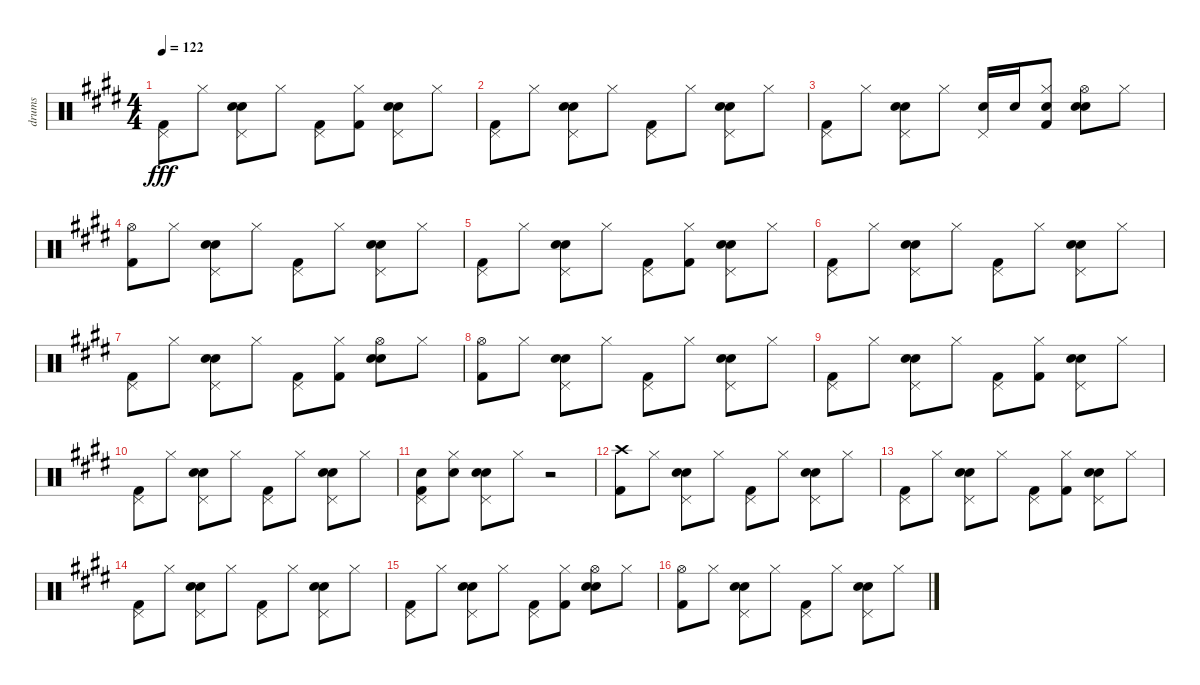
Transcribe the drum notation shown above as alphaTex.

\track ("drums" "drums") {instrument percussion}
\staff {score}
\articulation defaults
\ts (4 4)
\tempo 122
\clef neutral
\ks e
("Pedal Hi-Hat (hit)" "Kick (hit) 2").8{dy fff} "Hi-Hat (closed)".8 ("Hand Clap (hit)" "Pedal Hi-Hat (hit)" "Snare (hit) 2").8 "Hi-Hat (closed)".8 ("Pedal Hi-Hat (hit)" "Kick (hit) 2").8 ("Hi-Hat (closed)" "Kick (hit) 2").8 ("Hand Clap (hit)" "Pedal Hi-Hat (hit)" "Snare (hit) 2").8 "Hi-Hat (closed)".8 |
("Pedal Hi-Hat (hit)" "Kick (hit) 2").8 "Hi-Hat (closed)".8 ("Hand Clap (hit)" "Pedal Hi-Hat (hit)" "Snare (hit) 2").8 "Hi-Hat (closed)".8 ("Pedal Hi-Hat (hit)" "Kick (hit) 2").8 "Hi-Hat (closed)".8 ("Hand Clap (hit)" "Pedal Hi-Hat (hit)" "Snare (hit) 2").8 "Hi-Hat (closed)".8 |
("Kick (hit) 2" "Pedal Hi-Hat (hit)").8 "Hi-Hat (closed)".8 ("Hand Clap (hit)" "Pedal Hi-Hat (hit)" "Snare (hit) 2").8 "Hi-Hat (closed)".8 ("Snare (hit) 2" "Pedal Hi-Hat (hit)").16 "Snare (hit) 2".16 ("Kick (hit) 2" "Snare (hit) 2" "Hi-Hat (closed)").8 ("Hand Clap (hit)" "Hi-Hat (open)" "Snare (hit) 2").8 "Hi-Hat (closed)".8 |
("Hi-Hat (open)" "Kick (hit) 2").8 "Hi-Hat (closed)".8 ("Hand Clap (hit)" "Pedal Hi-Hat (hit)" "Snare (hit) 2").8 "Hi-Hat (closed)".8 ("Pedal Hi-Hat (hit)" "Kick (hit) 2").8 "Hi-Hat (closed)".8 ("Hand Clap (hit)" "Pedal Hi-Hat (hit)" "Snare (hit) 2").8 "Hi-Hat (closed)".8 |
("Pedal Hi-Hat (hit)" "Kick (hit) 2").8 "Hi-Hat (closed)".8 ("Hand Clap (hit)" "Pedal Hi-Hat (hit)" "Snare (hit) 2").8 "Hi-Hat (closed)".8 ("Pedal Hi-Hat (hit)" "Kick (hit) 2").8 ("Hi-Hat (closed)" "Kick (hit) 2").8 ("Hand Clap (hit)" "Pedal Hi-Hat (hit)" "Snare (hit) 2").8 "Hi-Hat (closed)".8 |
("Pedal Hi-Hat (hit)" "Kick (hit) 2").8 "Hi-Hat (closed)".8 ("Hand Clap (hit)" "Pedal Hi-Hat (hit)" "Snare (hit) 2").8 "Hi-Hat (closed)".8 ("Pedal Hi-Hat (hit)" "Kick (hit) 2").8 "Hi-Hat (closed)".8 ("Hand Clap (hit)" "Pedal Hi-Hat (hit)" "Snare (hit) 2").8 "Hi-Hat (closed)".8 |
("Pedal Hi-Hat (hit)" "Kick (hit) 2").8 "Hi-Hat (closed)".8 ("Hand Clap (hit)" "Pedal Hi-Hat (hit)" "Snare (hit) 2").8 "Hi-Hat (closed)".8 ("Kick (hit) 2" "Pedal Hi-Hat (hit)").8 ("Kick (hit) 2" "Hi-Hat (closed)").8 ("Hand Clap (hit)" "Hi-Hat (open)" "Snare (hit) 2").8 "Hi-Hat (closed)".8 |
("Hi-Hat (open)" "Kick (hit) 2").8 "Hi-Hat (closed)".8 ("Hand Clap (hit)" "Pedal Hi-Hat (hit)" "Snare (hit) 2").8 "Hi-Hat (closed)".8 ("Pedal Hi-Hat (hit)" "Kick (hit) 2").8 "Hi-Hat (closed)".8 ("Hand Clap (hit)" "Pedal Hi-Hat (hit)" "Snare (hit) 2").8 "Hi-Hat (closed)".8 |
("Pedal Hi-Hat (hit)" "Kick (hit) 2").8 "Hi-Hat (closed)".8 ("Hand Clap (hit)" "Pedal Hi-Hat (hit)" "Snare (hit) 2").8 "Hi-Hat (closed)".8 ("Pedal Hi-Hat (hit)" "Kick (hit) 2").8 ("Hi-Hat (closed)" "Kick (hit) 2").8 ("Hand Clap (hit)" "Pedal Hi-Hat (hit)" "Snare (hit) 2").8 "Hi-Hat (closed)".8 |
("Pedal Hi-Hat (hit)" "Kick (hit) 2").8 "Hi-Hat (closed)".8 ("Hand Clap (hit)" "Pedal Hi-Hat (hit)" "Snare (hit) 2").8 "Hi-Hat (closed)".8 ("Pedal Hi-Hat (hit)" "Kick (hit) 2").8 "Hi-Hat (closed)".8 ("Hand Clap (hit)" "Pedal Hi-Hat (hit)" "Snare (hit) 2").8 "Hi-Hat (closed)".8 |
("Snare (hit) 2" "Kick (hit) 2" "Pedal Hi-Hat (hit)").8 ("Snare (hit) 2" "Hi-Hat (closed)").8 ("Hand Clap (hit)" "Pedal Hi-Hat (hit)" "Snare (hit) 2").8 "Hi-Hat (closed)".8 r.2 |
("Crash high (hit)" "Kick (hit) 2").8 "Hi-Hat (closed)".8 ("Hand Clap (hit)" "Pedal Hi-Hat (hit)" "Snare (hit) 2").8 "Hi-Hat (closed)".8 ("Pedal Hi-Hat (hit)" "Kick (hit) 2").8 "Hi-Hat (closed)".8 ("Hand Clap (hit)" "Pedal Hi-Hat (hit)" "Snare (hit) 2").8 "Hi-Hat (closed)".8 |
("Pedal Hi-Hat (hit)" "Kick (hit) 2").8 "Hi-Hat (closed)".8 ("Hand Clap (hit)" "Pedal Hi-Hat (hit)" "Snare (hit) 2").8 "Hi-Hat (closed)".8 ("Pedal Hi-Hat (hit)" "Kick (hit) 2").8 ("Hi-Hat (closed)" "Kick (hit) 2").8 ("Hand Clap (hit)" "Pedal Hi-Hat (hit)" "Snare (hit) 2").8 "Hi-Hat (closed)".8 |
("Pedal Hi-Hat (hit)" "Kick (hit) 2").8 "Hi-Hat (closed)".8 ("Hand Clap (hit)" "Pedal Hi-Hat (hit)" "Snare (hit) 2").8 "Hi-Hat (closed)".8 ("Pedal Hi-Hat (hit)" "Kick (hit) 2").8 "Hi-Hat (closed)".8 ("Hand Clap (hit)" "Pedal Hi-Hat (hit)" "Snare (hit) 2").8 "Hi-Hat (closed)".8 |
("Pedal Hi-Hat (hit)" "Kick (hit) 2").8 "Hi-Hat (closed)".8 ("Hand Clap (hit)" "Pedal Hi-Hat (hit)" "Snare (hit) 2").8 "Hi-Hat (closed)".8 ("Kick (hit) 2" "Pedal Hi-Hat (hit)").8 ("Kick (hit) 2" "Hi-Hat (closed)").8 ("Hand Clap (hit)" "Hi-Hat (open)" "Snare (hit) 2").8 "Hi-Hat (closed)".8 |
("Hi-Hat (open)" "Kick (hit) 2").8 "Hi-Hat (closed)".8 ("Hand Clap (hit)" "Pedal Hi-Hat (hit)" "Snare (hit) 2").8 "Hi-Hat (closed)".8 ("Pedal Hi-Hat (hit)" "Kick (hit) 2").8 "Hi-Hat (closed)".8 ("Hand Clap (hit)" "Pedal Hi-Hat (hit)" "Snare (hit) 2").8 "Hi-Hat (closed)".8
